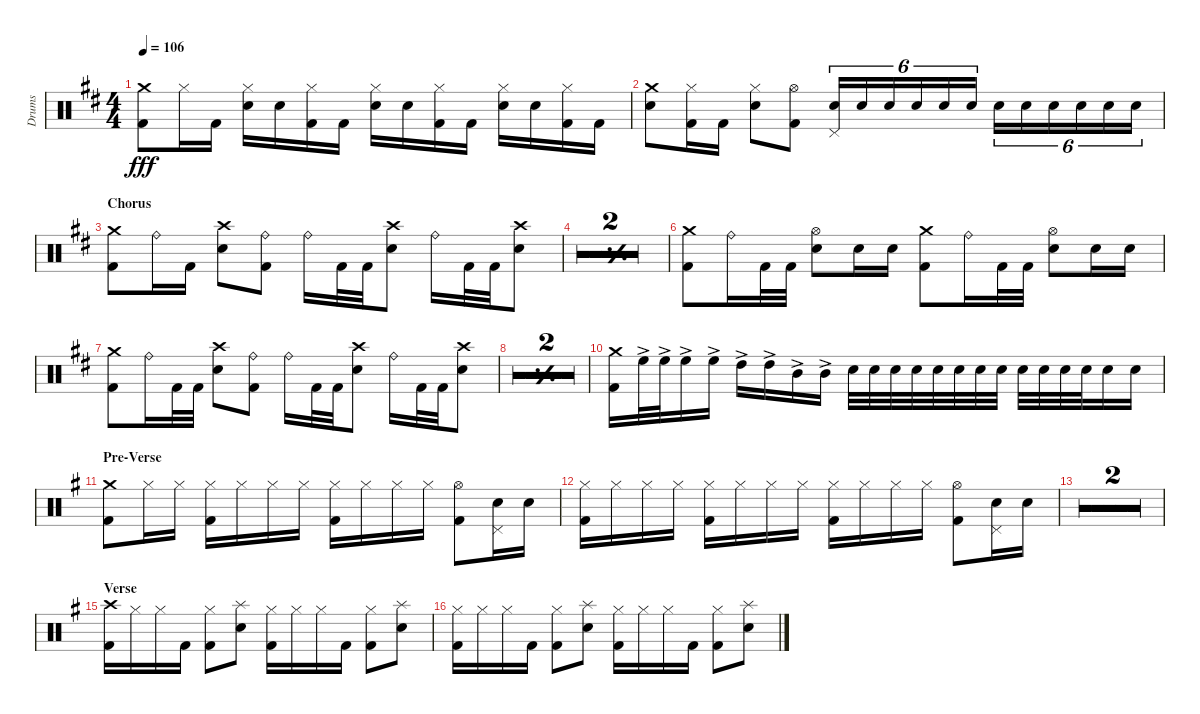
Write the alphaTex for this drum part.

\defaultSystemsLayout 4
\bracketExtendMode groupsimilarinstruments
\otherSystemsTrackNameOrientation horizontal
\track ("Drumkit" "Drums") {multiBarRest instrument percussion}
\staff {score}
\articulation defaults
\ts (4 4)
\tempo 106
\clef neutral
\ks d
("Crash medium (hit)"{acc forcenatural} "Kick (hit) 2"{acc forcenatural}).8{dy fff} "Hi-Hat (closed)"{acc forcenatural}.16 "Kick (hit) 2"{acc forcenatural}.16 ("Hi-Hat (closed)"{acc forcenatural} "Snare (hit) 2"{acc forcenatural}).16 "Snare (hit) 2"{acc forcenatural}.16 ("Hi-Hat (closed)"{acc forcenatural} "Kick (hit) 2"{acc forcenatural}).16 "Kick (hit) 2"{acc forcenatural}.16 ("Hi-Hat (closed)"{acc forcenatural} "Snare (hit) 2"{acc forcenatural}).16 "Snare (hit) 2"{acc forcenatural}.16 ("Hi-Hat (closed)"{acc forcenatural} "Kick (hit) 2"{acc forcenatural}).16 "Kick (hit) 2"{acc forcenatural}.16 ("Hi-Hat (closed)"{acc forcenatural} "Snare (hit) 2"{acc forcenatural}).16 "Snare (hit) 2"{acc forcenatural}.16 ("Hi-Hat (closed)"{acc forcenatural} "Kick (hit) 2"{acc forcenatural}).16 "Kick (hit) 2"{acc forcenatural}.16 |
("Crash medium (hit)"{acc forcenatural} "Snare (hit) 2"{acc forcenatural}).8 ("Hi-Hat (closed)"{acc forcenatural} "Kick (hit) 2"{acc forcenatural}).16 "Kick (hit) 2"{acc forcenatural}.16 ("Hi-Hat (closed)"{acc forcenatural} "Snare (hit) 2"{acc forcenatural}).8 ("Kick (hit) 2"{acc forcenatural} "Hi-Hat (open)"{acc forcenatural}).8 ("Snare (hit) 2"{acc forcenatural} "Pedal Hi-Hat (hit)"{acc forcenatural}).16{tu (6 4)} "Snare (hit) 2"{acc forcenatural}.16{tu (6 4)} "Snare (hit) 2"{acc forcenatural}.16{tu (6 4)} "Snare (hit) 2"{acc forcenatural}.16{tu (6 4)} "Snare (hit) 2"{acc forcenatural}.16{tu (6 4)} "Snare (hit) 2"{acc forcenatural}.16{tu (6 4)} "Snare (hit) 2"{acc forcenatural}.16{tu (6 4)} "Snare (hit) 2"{acc forcenatural}.16{tu (6 4)} "Snare (hit) 2"{acc forcenatural}.16{tu (6 4)} "Snare (hit) 2"{acc forcenatural}.16{tu (6 4)} "Snare (hit) 2"{acc forcenatural}.16{tu (6 4)} "Snare (hit) 2"{acc forcenatural}.16{tu (6 4)} |
\section ("" "Chorus")
("Crash medium (hit)"{acc forcenatural} "Kick (hit) 2"{acc forcenatural}).8 "Ride (bell)"{acc forcenatural}.16 "Kick (hit) 2"{acc forcenatural}.16 ("Snare (hit) 2"{acc forcenatural} "Crash high (hit)"{acc forcenatural}).8 ("Ride (bell)"{acc forcenatural} "Kick (hit) 2"{acc forcenatural}).8 "Ride (bell)"{acc forcenatural}.16 "Kick (hit) 2"{acc forcenatural}.32 "Kick (hit) 2"{acc forcenatural}.32 ("Snare (hit) 2"{acc forcenatural} "Crash high (hit)"{acc forcenatural}).8 "Ride (bell)"{acc forcenatural}.16 "Kick (hit) 2"{acc forcenatural}.32 "Kick (hit) 2"{acc forcenatural}.32 ("Snare (hit) 2"{acc forcenatural} "Crash high (hit)"{acc forcenatural}).8 |
\simile simple
|
|
\simile none
("Crash medium (hit)"{acc forcenatural} "Kick (hit) 2"{acc forcenatural}).8 "Ride (bell)"{acc forcenatural}.16 "Kick (hit) 2"{acc forcenatural}.32 "Kick (hit) 2"{acc forcenatural}.32 ("Snare (hit) 2"{acc forcenatural} "Hi-Hat (open)"{acc forcenatural}).8 "Snare (hit) 2"{acc forcenatural}.16 "Snare (hit) 2"{acc forcenatural}.16 ("Crash medium (hit)"{acc forcenatural} "Kick (hit) 2"{acc forcenatural}).8 "Ride (bell)"{acc forcenatural}.16 "Kick (hit) 2"{acc forcenatural}.32 "Kick (hit) 2"{acc forcenatural}.32 ("Snare (hit) 2"{acc forcenatural} "Hi-Hat (open)"{acc forcenatural}).8 "Snare (hit) 2"{acc forcenatural}.16 "Snare (hit) 2"{acc forcenatural}.16 |
("Crash medium (hit)"{acc forcenatural} "Kick (hit) 2"{acc forcenatural}).8 "Ride (bell)"{acc forcenatural}.16 "Kick (hit) 2"{acc forcenatural}.32 "Kick (hit) 2"{acc forcenatural}.32 ("Snare (hit) 2"{acc forcenatural} "Crash high (hit)"{acc forcenatural}).8 ("Ride (bell)"{acc forcenatural} "Kick (hit) 2"{acc forcenatural}).8 "Ride (bell)"{acc forcenatural}.16 "Kick (hit) 2"{acc forcenatural}.32 "Kick (hit) 2"{acc forcenatural}.32 ("Snare (hit) 2"{acc forcenatural} "Crash high (hit)"{acc forcenatural}).8 "Ride (bell)"{acc forcenatural}.16 "Kick (hit) 2"{acc forcenatural}.32 "Kick (hit) 2"{acc forcenatural}.32 ("Snare (hit) 2"{acc forcenatural} "Crash high (hit)"{acc forcenatural}).8 |
\simile simple
|
|
\simile none
("Kick (hit) 2"{acc forcenatural} "Crash medium (hit)"{acc forcenatural}).16 "High Floor Tom (hit)"{ac acc forcenatural}.32 "High Floor Tom (hit)"{ac acc forcenatural}.32 "High Floor Tom (hit)"{ac acc forcenatural}.16 "High Floor Tom (hit)"{ac acc forcenatural}.16 "High Tom (hit)"{ac acc forcenatural}.16 "High Tom (hit)"{ac acc forcenatural}.16 "Mid Tom (hit)"{ac acc forcenatural}.16 "Mid Tom (hit)"{ac acc forcenatural}.16 "Snare (hit) 2"{acc forcenatural}.32 "Snare (hit) 2"{acc forcenatural}.32 "Snare (hit) 2"{acc forcenatural}.32 "Snare (hit) 2"{acc forcenatural}.32 "Snare (hit) 2"{acc forcenatural}.32 "Snare (hit) 2"{acc forcenatural}.32 "Snare (hit) 2"{acc forcenatural}.32 "Snare (hit) 2"{acc forcenatural}.32 "Snare (hit) 2"{acc forcenatural}.32 "Snare (hit) 2"{acc forcenatural}.32 "Snare (hit) 2"{acc forcenatural}.32 "Snare (hit) 2"{acc forcenatural}.32 "Snare (hit) 2"{acc forcenatural}.16 "Snare (hit) 2"{acc forcenatural}.16 |
\section ("" "Pre-Verse")
\ks g
("Crash medium (hit)"{acc forcenatural} "Kick (hit) 2"{acc forcenatural}).8 "Hi-Hat (closed)"{acc forcenatural}.16 "Hi-Hat (closed)"{acc forcenatural}.16 ("Hi-Hat (closed)"{acc forcenatural} "Kick (hit) 2"{acc forcenatural}).16 "Hi-Hat (closed)"{acc forcenatural}.16 "Hi-Hat (closed)"{acc forcenatural}.16 "Hi-Hat (closed)"{acc forcenatural}.16 ("Hi-Hat (closed)"{acc forcenatural} "Kick (hit) 2"{acc forcenatural}).16 "Hi-Hat (closed)"{acc forcenatural}.16 "Hi-Hat (closed)"{acc forcenatural}.16 "Hi-Hat (closed)"{acc forcenatural}.16 ("Kick (hit) 2"{acc forcenatural} "Hi-Hat (open)"{acc forcenatural}).8 ("Snare (hit) 2"{acc forcenatural} "Pedal Hi-Hat (hit)"{acc forcenatural}).16 "Snare (hit) 2"{acc forcenatural}.16 |
("Kick (hit) 2"{acc forcenatural} "Hi-Hat (closed)"{acc forcenatural}).16 "Hi-Hat (closed)"{acc forcenatural}.16 "Hi-Hat (closed)"{acc forcenatural}.16 "Hi-Hat (closed)"{acc forcenatural}.16 ("Hi-Hat (closed)"{acc forcenatural} "Kick (hit) 2"{acc forcenatural}).16 "Hi-Hat (closed)"{acc forcenatural}.16 "Hi-Hat (closed)"{acc forcenatural}.16 "Hi-Hat (closed)"{acc forcenatural}.16 ("Hi-Hat (closed)"{acc forcenatural} "Kick (hit) 2"{acc forcenatural}).16 "Hi-Hat (closed)"{acc forcenatural}.16 "Hi-Hat (closed)"{acc forcenatural}.16 "Hi-Hat (closed)"{acc forcenatural}.16 ("Kick (hit) 2"{acc forcenatural} "Hi-Hat (open)"{acc forcenatural}).8 ("Snare (hit) 2"{acc forcenatural} "Pedal Hi-Hat (hit)"{acc forcenatural}).16 "Snare (hit) 2"{acc forcenatural}.16 |
\simile firstofdouble
|
\simile secondofdouble
|
\section ("" "Verse")
\simile none
("Kick (hit) 2"{acc forcenatural} "Crash high (hit)"{acc forcenatural}).16 "Hi-Hat (closed)"{acc forcenatural}.16 "Hi-Hat (closed)"{acc forcenatural}.16 "Kick (hit) 2"{acc forcenatural}.16 ("Kick (hit) 2"{acc forcenatural} "Hi-Hat (closed)"{acc forcenatural}).8 ("Snare (hit) 2"{acc forcenatural} "Splash (hit)"{acc forcenatural}).8 ("Hi-Hat (closed)"{acc forcenatural} "Kick (hit) 2"{acc forcenatural}).16 "Hi-Hat (closed)"{acc forcenatural}.16 "Hi-Hat (closed)"{acc forcenatural}.16 "Kick (hit) 2"{acc forcenatural}.16 ("Kick (hit) 2"{acc forcenatural} "Hi-Hat (closed)"{acc forcenatural}).8 ("Snare (hit) 2"{acc forcenatural} "Splash (hit)"{acc forcenatural}).8 |
("Hi-Hat (closed)"{acc forcenatural} "Kick (hit) 2"{acc forcenatural}).16 "Hi-Hat (closed)"{acc forcenatural}.16 "Hi-Hat (closed)"{acc forcenatural}.16 "Kick (hit) 2"{acc forcenatural}.16 ("Kick (hit) 2"{acc forcenatural} "Hi-Hat (closed)"{acc forcenatural}).8 ("Snare (hit) 2"{acc forcenatural} "Splash (hit)"{acc forcenatural}).8 ("Hi-Hat (closed)"{acc forcenatural} "Kick (hit) 2"{acc forcenatural}).16 "Hi-Hat (closed)"{acc forcenatural}.16 "Hi-Hat (closed)"{acc forcenatural}.16 "Kick (hit) 2"{acc forcenatural}.16 ("Kick (hit) 2"{acc forcenatural} "Hi-Hat (closed)"{acc forcenatural}).8 ("Snare (hit) 2"{acc forcenatural} "Splash (hit)"{acc forcenatural}).8
